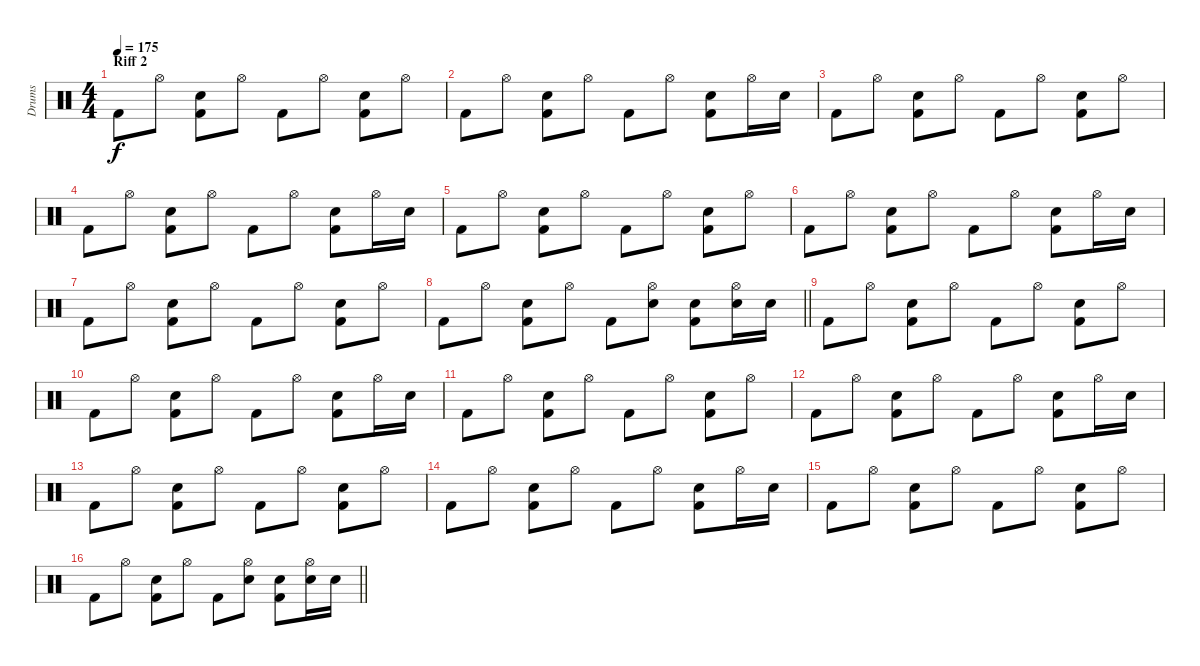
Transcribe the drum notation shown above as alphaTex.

\track ("Drums" "Drums") {instrument percussion}
\staff {score}
\articulation defaults
\ts (4 4)
\section ("" "Riff 2")
\tempo 175
\clef neutral
\ks c "Kick (hit) 2".8{dy f} "Hi-Hat (open)".8
("Kick (hit) 2" "Snare (hit) 2").8 "Hi-Hat (open)".8 "Kick (hit) 2".8 "Hi-Hat (open)".8 ("Kick (hit) 2" "Snare (hit) 2").8 "Hi-Hat (open)".8 |
"Kick (hit) 2".8 "Hi-Hat (open)".8 ("Kick (hit) 2" "Snare (hit) 2").8 "Hi-Hat (open)".8 "Kick (hit) 2".8 "Hi-Hat (open)".8 ("Kick (hit) 2" "Snare (hit) 2").8 "Hi-Hat (open)".16 "Snare (hit) 2".16 |
"Kick (hit) 2".8 "Hi-Hat (open)".8 ("Kick (hit) 2" "Snare (hit) 2").8 "Hi-Hat (open)".8 "Kick (hit) 2".8 "Hi-Hat (open)".8 ("Kick (hit) 2" "Snare (hit) 2").8 "Hi-Hat (open)".8 |
"Kick (hit) 2".8 "Hi-Hat (open)".8 ("Kick (hit) 2" "Snare (hit) 2").8 "Hi-Hat (open)".8 "Kick (hit) 2".8 "Hi-Hat (open)".8 ("Kick (hit) 2" "Snare (hit) 2").8 "Hi-Hat (open)".16 "Snare (hit) 2".16 |
"Kick (hit) 2".8 "Hi-Hat (open)".8 ("Kick (hit) 2" "Snare (hit) 2").8 "Hi-Hat (open)".8 "Kick (hit) 2".8 "Hi-Hat (open)".8 ("Kick (hit) 2" "Snare (hit) 2").8 "Hi-Hat (open)".8 |
"Kick (hit) 2".8 "Hi-Hat (open)".8 ("Kick (hit) 2" "Snare (hit) 2").8 "Hi-Hat (open)".8 "Kick (hit) 2".8 "Hi-Hat (open)".8 ("Kick (hit) 2" "Snare (hit) 2").8 "Hi-Hat (open)".16 "Snare (hit) 2".16 |
"Kick (hit) 2".8 "Hi-Hat (open)".8 ("Kick (hit) 2" "Snare (hit) 2").8 "Hi-Hat (open)".8 "Kick (hit) 2".8 "Hi-Hat (open)".8 ("Kick (hit) 2" "Snare (hit) 2").8 "Hi-Hat (open)".8 |
\barLineRight lightlight "Kick (hit) 2".8 "Hi-Hat (open)".8
("Kick (hit) 2" "Snare (hit) 2").8 "Hi-Hat (open)".8 "Kick (hit) 2".8 ("Hi-Hat (open)" "Snare (hit) 2").8 ("Kick (hit) 2" "Snare (hit) 2").8 ("Hi-Hat (open)" "Snare (hit) 2").16 "Snare (hit) 2".16 |
"Kick (hit) 2".8 "Hi-Hat (open)".8 ("Kick (hit) 2" "Snare (hit) 2").8 "Hi-Hat (open)".8 "Kick (hit) 2".8 "Hi-Hat (open)".8 ("Kick (hit) 2" "Snare (hit) 2").8 "Hi-Hat (open)".8 |
"Kick (hit) 2".8 "Hi-Hat (open)".8 ("Kick (hit) 2" "Snare (hit) 2").8 "Hi-Hat (open)".8 "Kick (hit) 2".8 "Hi-Hat (open)".8 ("Kick (hit) 2" "Snare (hit) 2").8 "Hi-Hat (open)".16 "Snare (hit) 2".16 |
"Kick (hit) 2".8 "Hi-Hat (open)".8 ("Kick (hit) 2" "Snare (hit) 2").8 "Hi-Hat (open)".8 "Kick (hit) 2".8 "Hi-Hat (open)".8 ("Kick (hit) 2" "Snare (hit) 2").8 "Hi-Hat (open)".8 |
"Kick (hit) 2".8 "Hi-Hat (open)".8 ("Kick (hit) 2" "Snare (hit) 2").8 "Hi-Hat (open)".8 "Kick (hit) 2".8 "Hi-Hat (open)".8 ("Kick (hit) 2" "Snare (hit) 2").8 "Hi-Hat (open)".16 "Snare (hit) 2".16 |
"Kick (hit) 2".8 "Hi-Hat (open)".8 ("Kick (hit) 2" "Snare (hit) 2").8 "Hi-Hat (open)".8 "Kick (hit) 2".8 "Hi-Hat (open)".8 ("Kick (hit) 2" "Snare (hit) 2").8 "Hi-Hat (open)".8 |
"Kick (hit) 2".8 "Hi-Hat (open)".8 ("Kick (hit) 2" "Snare (hit) 2").8 "Hi-Hat (open)".8 "Kick (hit) 2".8 "Hi-Hat (open)".8 ("Kick (hit) 2" "Snare (hit) 2").8 "Hi-Hat (open)".16 "Snare (hit) 2".16 |
"Kick (hit) 2".8 "Hi-Hat (open)".8 ("Kick (hit) 2" "Snare (hit) 2").8 "Hi-Hat (open)".8 "Kick (hit) 2".8 "Hi-Hat (open)".8 ("Kick (hit) 2" "Snare (hit) 2").8 "Hi-Hat (open)".8 |
\barLineRight lightlight "Kick (hit) 2".8 "Hi-Hat (open)".8
("Kick (hit) 2" "Snare (hit) 2").8 "Hi-Hat (open)".8 "Kick (hit) 2".8 ("Hi-Hat (open)" "Snare (hit) 2").8 ("Kick (hit) 2" "Snare (hit) 2").8 ("Hi-Hat (open)" "Snare (hit) 2").16 "Snare (hit) 2".16
